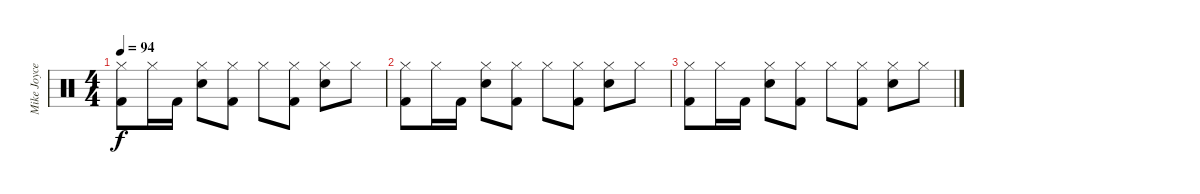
\track ("Mike Joyce" "Mike Joyce") {instrument percussion}
\staff {score}
\articulation defaults
\ts (4 4)
\tempo 94
\clef neutral
\ks c
("Hi-Hat (closed)" "Kick (hit) 2").8{dy f} "Hi-Hat (closed)".16 "Kick (hit) 2".16 ("Hi-Hat (closed)" "Snare (hit) 2").8 ("Hi-Hat (closed)" "Kick (hit) 2").8 "Hi-Hat (closed)".8 ("Hi-Hat (closed)" "Kick (hit) 2").8 ("Hi-Hat (closed)" "Snare (hit) 2").8 "Hi-Hat (closed)".8 |
("Hi-Hat (closed)" "Kick (hit) 2").8 "Hi-Hat (closed)".16 "Kick (hit) 2".16 ("Hi-Hat (closed)" "Snare (hit) 2").8 ("Hi-Hat (closed)" "Kick (hit) 2").8 "Hi-Hat (closed)".8 ("Hi-Hat (closed)" "Kick (hit) 2").8 ("Hi-Hat (closed)" "Snare (hit) 2").8 "Hi-Hat (closed)".8 |
("Hi-Hat (closed)" "Kick (hit) 2").8 "Hi-Hat (closed)".16 "Kick (hit) 2".16 ("Hi-Hat (closed)" "Snare (hit) 2").8 ("Hi-Hat (closed)" "Kick (hit) 2").8 "Hi-Hat (closed)".8 ("Hi-Hat (closed)" "Kick (hit) 2").8 ("Hi-Hat (closed)" "Snare (hit) 2").8 "Hi-Hat (closed)".8
